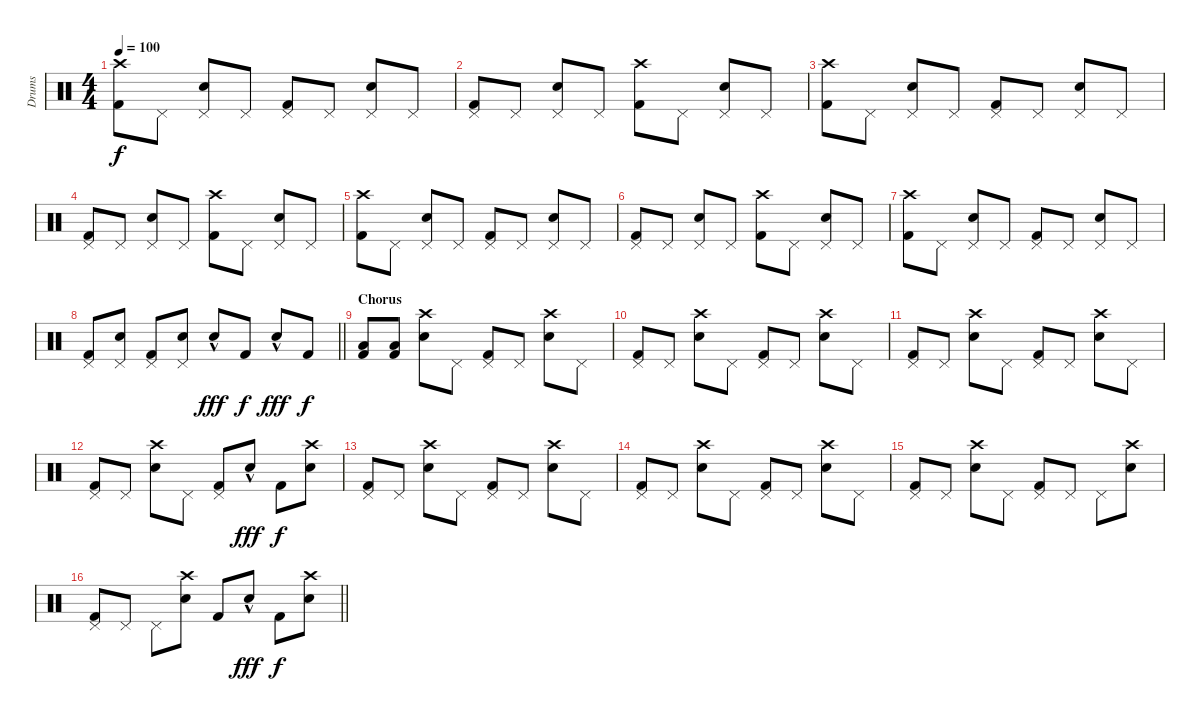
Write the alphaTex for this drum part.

\track ("Drums" "Drums") {instrument percussion}
\staff {score}
\articulation defaults
\ts (4 4)
\tempo 100
\clef neutral
\ks c
("Crash high (hit)" "Kick (hit) 2").8{dy f} "Pedal Hi-Hat (hit)".8 ("Pedal Hi-Hat (hit)" "Electric Snare (hit)").8 "Pedal Hi-Hat (hit)".8 ("Pedal Hi-Hat (hit)" "Kick (hit) 2").8 "Pedal Hi-Hat (hit)".8 ("Pedal Hi-Hat (hit)" "Electric Snare (hit)").8 "Pedal Hi-Hat (hit)".8 |
("Pedal Hi-Hat (hit)" "Kick (hit) 2").8 "Pedal Hi-Hat (hit)".8 ("Pedal Hi-Hat (hit)" "Electric Snare (hit)").8 "Pedal Hi-Hat (hit)".8 ("Crash high (hit)" "Kick (hit) 2").8 "Pedal Hi-Hat (hit)".8 ("Pedal Hi-Hat (hit)" "Electric Snare (hit)").8 "Pedal Hi-Hat (hit)".8 |
("Crash high (hit)" "Kick (hit) 2").8 "Pedal Hi-Hat (hit)".8 ("Pedal Hi-Hat (hit)" "Electric Snare (hit)").8 "Pedal Hi-Hat (hit)".8 ("Pedal Hi-Hat (hit)" "Kick (hit) 2").8 "Pedal Hi-Hat (hit)".8 ("Pedal Hi-Hat (hit)" "Electric Snare (hit)").8 "Pedal Hi-Hat (hit)".8 |
("Pedal Hi-Hat (hit)" "Kick (hit) 2").8 "Pedal Hi-Hat (hit)".8 ("Pedal Hi-Hat (hit)" "Electric Snare (hit)").8 "Pedal Hi-Hat (hit)".8 ("Crash high (hit)" "Kick (hit) 2").8 "Pedal Hi-Hat (hit)".8 ("Pedal Hi-Hat (hit)" "Electric Snare (hit)").8 "Pedal Hi-Hat (hit)".8 |
("Crash high (hit)" "Kick (hit) 2").8 "Pedal Hi-Hat (hit)".8 ("Pedal Hi-Hat (hit)" "Electric Snare (hit)").8 "Pedal Hi-Hat (hit)".8 ("Pedal Hi-Hat (hit)" "Kick (hit) 2").8 "Pedal Hi-Hat (hit)".8 ("Pedal Hi-Hat (hit)" "Electric Snare (hit)").8 "Pedal Hi-Hat (hit)".8 |
("Pedal Hi-Hat (hit)" "Kick (hit) 2").8 "Pedal Hi-Hat (hit)".8 ("Pedal Hi-Hat (hit)" "Electric Snare (hit)").8 "Pedal Hi-Hat (hit)".8 ("Crash high (hit)" "Kick (hit) 2").8 "Pedal Hi-Hat (hit)".8 ("Pedal Hi-Hat (hit)" "Electric Snare (hit)").8 "Pedal Hi-Hat (hit)".8 |
("Crash high (hit)" "Kick (hit) 2").8 "Pedal Hi-Hat (hit)".8 ("Pedal Hi-Hat (hit)" "Electric Snare (hit)").8 "Pedal Hi-Hat (hit)".8 ("Pedal Hi-Hat (hit)" "Kick (hit) 2").8 "Pedal Hi-Hat (hit)".8 ("Pedal Hi-Hat (hit)" "Electric Snare (hit)").8 "Pedal Hi-Hat (hit)".8 |
\barLineRight lightlight
("Pedal Hi-Hat (hit)" "Kick (hit) 2").8 ("Pedal Hi-Hat (hit)" "Electric Snare (hit)").8 ("Pedal Hi-Hat (hit)" "Kick (hit) 2").8 ("Pedal Hi-Hat (hit)" "Electric Snare (hit)").8 "Electric Snare (hit)"{hac}.8{dy fff} "Kick (hit) 2".8{dy f} "Electric Snare (hit)"{hac}.8{dy fff} "Kick (hit) 2".8{dy f} |
\section ("" "Chorus")
("Kick (hit) 2" "Low Floor Tom (hit)").8 ("Kick (hit) 2" "Low Floor Tom (hit)").8 ("Crash high (hit)" "Electric Snare (hit)").8 "Pedal Hi-Hat (hit)".8 ("Pedal Hi-Hat (hit)" "Kick (hit) 2").8 "Pedal Hi-Hat (hit)".8 ("Crash high (hit)" "Electric Snare (hit)").8 "Pedal Hi-Hat (hit)".8 |
("Pedal Hi-Hat (hit)" "Kick (hit) 2").8 "Pedal Hi-Hat (hit)".8 ("Crash high (hit)" "Electric Snare (hit)").8 "Pedal Hi-Hat (hit)".8 ("Pedal Hi-Hat (hit)" "Kick (hit) 2").8 "Pedal Hi-Hat (hit)".8 ("Crash high (hit)" "Electric Snare (hit)").8 "Pedal Hi-Hat (hit)".8 |
("Pedal Hi-Hat (hit)" "Kick (hit) 2").8 "Pedal Hi-Hat (hit)".8 ("Crash high (hit)" "Electric Snare (hit)").8 "Pedal Hi-Hat (hit)".8 ("Pedal Hi-Hat (hit)" "Kick (hit) 2").8 "Pedal Hi-Hat (hit)".8 ("Crash high (hit)" "Electric Snare (hit)").8 "Pedal Hi-Hat (hit)".8 |
("Pedal Hi-Hat (hit)" "Kick (hit) 2").8 "Pedal Hi-Hat (hit)".8 ("Crash high (hit)" "Electric Snare (hit)").8 "Pedal Hi-Hat (hit)".8 ("Pedal Hi-Hat (hit)" "Kick (hit) 2").8 "Electric Snare (hit)"{hac}.8{dy fff} "Kick (hit) 2".8{dy f} ("Crash high (hit)" "Electric Snare (hit)").8 |
("Pedal Hi-Hat (hit)" "Kick (hit) 2").8 "Pedal Hi-Hat (hit)".8 ("Crash high (hit)" "Electric Snare (hit)").8 "Pedal Hi-Hat (hit)".8 ("Pedal Hi-Hat (hit)" "Kick (hit) 2").8 "Pedal Hi-Hat (hit)".8 ("Crash high (hit)" "Electric Snare (hit)").8 "Pedal Hi-Hat (hit)".8 |
("Pedal Hi-Hat (hit)" "Kick (hit) 2").8 "Pedal Hi-Hat (hit)".8 ("Crash high (hit)" "Electric Snare (hit)").8 "Pedal Hi-Hat (hit)".8 ("Pedal Hi-Hat (hit)" "Kick (hit) 2").8 "Pedal Hi-Hat (hit)".8 ("Crash high (hit)" "Electric Snare (hit)").8 "Pedal Hi-Hat (hit)".8 |
("Pedal Hi-Hat (hit)" "Kick (hit) 2").8 "Pedal Hi-Hat (hit)".8 ("Crash high (hit)" "Electric Snare (hit)").8 "Pedal Hi-Hat (hit)".8 ("Pedal Hi-Hat (hit)" "Kick (hit) 2").8 "Pedal Hi-Hat (hit)".8 "Pedal Hi-Hat (hit)".8 ("Crash high (hit)" "Electric Snare (hit)").8 |
\barLineRight lightlight
("Pedal Hi-Hat (hit)" "Kick (hit) 2").8 "Pedal Hi-Hat (hit)".8 "Pedal Hi-Hat (hit)".8 ("Crash high (hit)" "Electric Snare (hit)").8 "Kick (hit) 2".8 "Electric Snare (hit)"{hac}.8{dy fff} "Kick (hit) 2".8{dy f} ("Crash high (hit)" "Electric Snare (hit)").8
